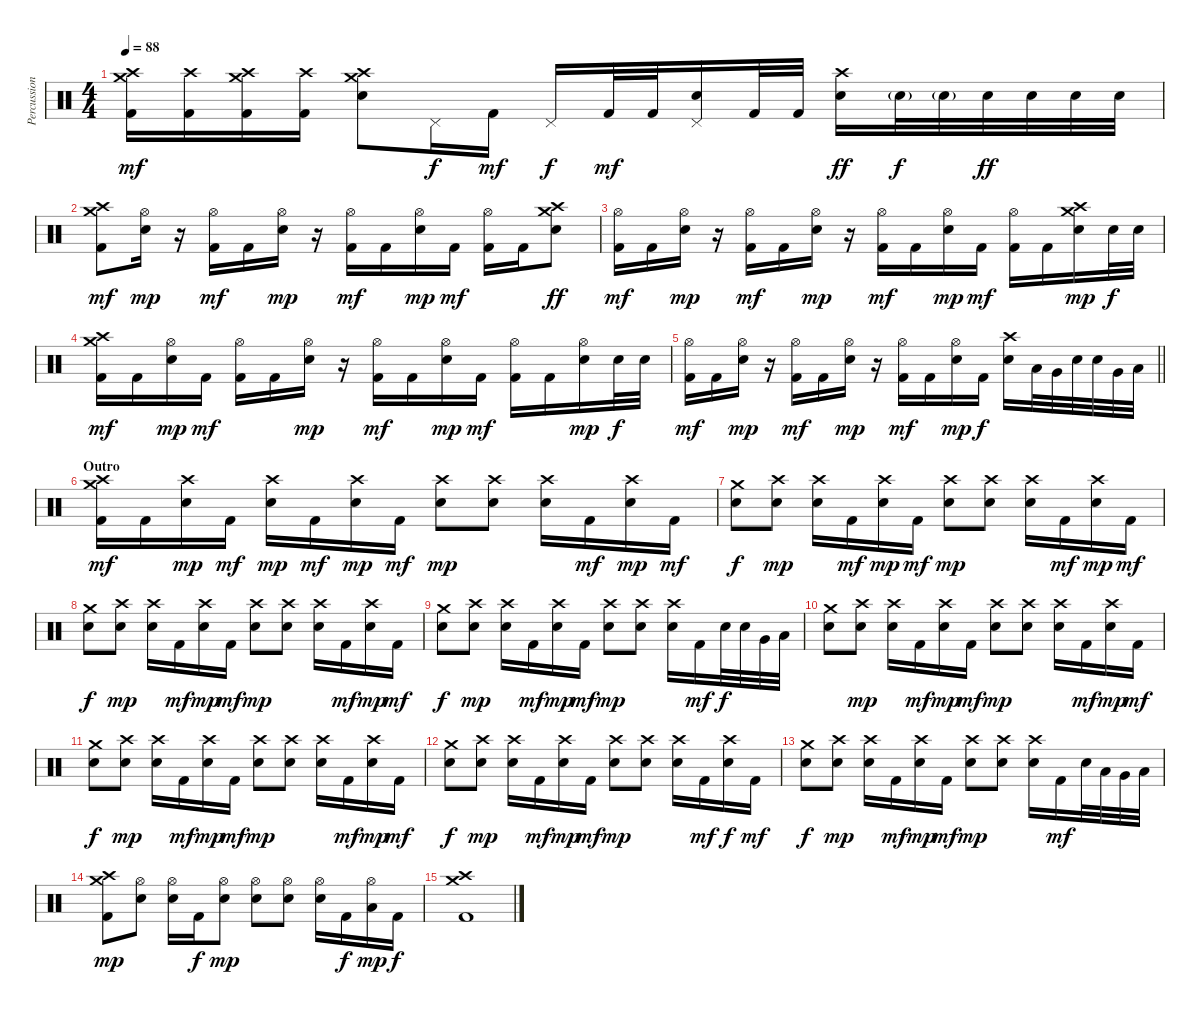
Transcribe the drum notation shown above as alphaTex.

\track ("Percussion" "Percussion") {instrument percussion}
\staff {score}
\articulation defaults
\ts (4 4)
\tempo 88
\clef neutral
\ks c
("Crash high (hit)" "Crash medium (hit)" "Kick (hit) 2").16{dy mf} ("Crash high (hit)" "Kick (hit) 2").16 ("Crash high (hit)" "Crash medium (hit)" "Kick (hit) 2").16 ("Crash high (hit)" "Kick (hit) 2").16 ("Crash high (hit)" "Crash medium (hit)" "Electric Snare (hit)").8 "Pedal Hi-Hat (hit)".16{dy f} "Kick (hit) 2".16{dy mf} "Pedal Hi-Hat (hit)".16{dy f} "Kick (hit) 2".32{dy mf} "Kick (hit) 2".32 ("Pedal Hi-Hat (hit)" "Electric Snare (hit)").16 "Kick (hit) 2".32 "Kick (hit) 2".32 ("Crash high (hit)" "Electric Snare (hit)").16{dy ff} "Electric Snare (hit)"{g}.32{dy f} "Electric Snare (hit)"{g}.32 "Electric Snare (hit)".32{dy ff} "Electric Snare (hit)".32 "Electric Snare (hit)".32 "Electric Snare (hit)".32 |
("Crash high (hit)" "Crash medium (hit)" "Kick (hit) 2").8{dy mf} ("Hi-Hat (open)" "Electric Snare (hit)").16{dy mp} r.16 ("Hi-Hat (open)" "Kick (hit) 2").16{dy mf} "Kick (hit) 2".16 ("Hi-Hat (open)" "Electric Snare (hit)").16{dy mp} r.16 ("Hi-Hat (open)" "Kick (hit) 2").16{dy mf} "Kick (hit) 2".16 ("Hi-Hat (open)" "Electric Snare (hit)").16{dy mp} "Kick (hit) 2".16{dy mf} ("Hi-Hat (open)" "Kick (hit) 2").16 "Kick (hit) 2".16 ("Crash high (hit)" "Crash medium (hit)" "Electric Snare (hit)").8{dy ff} |
("Hi-Hat (open)" "Kick (hit) 2").16{dy mf} "Kick (hit) 2".16 ("Hi-Hat (open)" "Electric Snare (hit)").16{dy mp} r.16 ("Hi-Hat (open)" "Kick (hit) 2").16{dy mf} "Kick (hit) 2".16 ("Hi-Hat (open)" "Electric Snare (hit)").16{dy mp} r.16 ("Hi-Hat (open)" "Kick (hit) 2").16{dy mf} "Kick (hit) 2".16 ("Hi-Hat (open)" "Electric Snare (hit)").16{dy mp} "Kick (hit) 2".16{dy mf} ("Hi-Hat (open)" "Kick (hit) 2").16 "Kick (hit) 2".16 ("Crash high (hit)" "Crash medium (hit)" "Electric Snare (hit)").16{dy mp} "Electric Snare (hit)".32{dy f} "Electric Snare (hit)".32 |
("Crash high (hit)" "Crash medium (hit)" "Kick (hit) 2").16{dy mf} "Kick (hit) 2".16 ("Hi-Hat (open)" "Electric Snare (hit)").16{dy mp} "Kick (hit) 2".16{dy mf} ("Hi-Hat (open)" "Kick (hit) 2").16 "Kick (hit) 2".16 ("Hi-Hat (open)" "Electric Snare (hit)").16{dy mp} r.16 ("Hi-Hat (open)" "Kick (hit) 2").16{dy mf} "Kick (hit) 2".16 ("Hi-Hat (open)" "Electric Snare (hit)").16{dy mp} "Kick (hit) 2".16{dy mf} ("Hi-Hat (open)" "Kick (hit) 2").16 "Kick (hit) 2".16 ("Hi-Hat (open)" "Electric Snare (hit)").16{dy mp} "Electric Snare (hit)".32{dy f} "Electric Snare (hit)".32 |
\barLineRight lightlight
("Hi-Hat (open)" "Kick (hit) 2").16{dy mf} "Kick (hit) 2".16 ("Hi-Hat (open)" "Electric Snare (hit)").16{dy mp} r.16 ("Hi-Hat (open)" "Kick (hit) 2").16{dy mf} "Kick (hit) 2".16 ("Hi-Hat (open)" "Electric Snare (hit)").16{dy mp} r.16 ("Hi-Hat (open)" "Kick (hit) 2").16{dy mf} "Kick (hit) 2".16 ("Hi-Hat (open)" "Electric Snare (hit)").16{dy mp} "Kick (hit) 2".16{dy f} ("Crash high (hit)" "Electric Snare (hit)").16 "Low Tom (hit)".32 "Very Low Tom (hit)".32 "Electric Snare (hit)".32 "Electric Snare (hit)".32 "Very Low Tom (hit)".32 "Low Floor Tom (hit)".32 |
\section ("" "Outro")
("Crash high (hit)" "Crash medium (hit)" "Kick (hit) 2").16{dy mf} "Kick (hit) 2".16 ("Crash high (hit)" "Electric Snare (hit)").16{dy mp} "Kick (hit) 2".16{dy mf} ("Crash high (hit)" "Electric Snare (hit)").16{dy mp} "Kick (hit) 2".16{dy mf} ("Crash high (hit)" "Electric Snare (hit)").16{dy mp} "Kick (hit) 2".16{dy mf} ("Crash high (hit)" "Electric Snare (hit)").8{dy mp} ("Crash high (hit)" "Electric Snare (hit)").8 ("Crash high (hit)" "Electric Snare (hit)").16 "Kick (hit) 2".16{dy mf} ("Crash high (hit)" "Electric Snare (hit)").16{dy mp} "Kick (hit) 2".16{dy mf} |
("Crash medium (hit)" "Electric Snare (hit)").8{dy f} ("Crash high (hit)" "Electric Snare (hit)").8{dy mp} ("Crash high (hit)" "Electric Snare (hit)").16 "Kick (hit) 2".16{dy mf} ("Crash high (hit)" "Electric Snare (hit)").16{dy mp} "Kick (hit) 2".16{dy mf} ("Crash high (hit)" "Electric Snare (hit)").8{dy mp} ("Crash high (hit)" "Electric Snare (hit)").8 ("Crash high (hit)" "Electric Snare (hit)").16 "Kick (hit) 2".16{dy mf} ("Crash high (hit)" "Electric Snare (hit)").16{dy mp} "Kick (hit) 2".16{dy mf} |
("Crash medium (hit)" "Electric Snare (hit)").8{dy f} ("Crash high (hit)" "Electric Snare (hit)").8{dy mp} ("Crash high (hit)" "Electric Snare (hit)").16 "Kick (hit) 2".16{dy mf} ("Crash high (hit)" "Electric Snare (hit)").16{dy mp} "Kick (hit) 2".16{dy mf} ("Crash high (hit)" "Electric Snare (hit)").8{dy mp} ("Crash high (hit)" "Electric Snare (hit)").8 ("Crash high (hit)" "Electric Snare (hit)").16 "Kick (hit) 2".16{dy mf} ("Crash high (hit)" "Electric Snare (hit)").16{dy mp} "Kick (hit) 2".16{dy mf} |
("Crash medium (hit)" "Electric Snare (hit)").8{dy f} ("Crash high (hit)" "Electric Snare (hit)").8{dy mp} ("Crash high (hit)" "Electric Snare (hit)").16 "Kick (hit) 2".16{dy mf} ("Crash high (hit)" "Electric Snare (hit)").16{dy mp} "Kick (hit) 2".16{dy mf} ("Crash high (hit)" "Electric Snare (hit)").8{dy mp} ("Crash high (hit)" "Electric Snare (hit)").8 ("Crash high (hit)" "Electric Snare (hit)").16 "Kick (hit) 2".16{dy mf} "Electric Snare (hit)".32{dy f} "Electric Snare (hit)".32 "Very Low Tom (hit)".32 "Low Floor Tom (hit)".32 |
("Crash medium (hit)" "Electric Snare (hit)").8 ("Crash high (hit)" "Electric Snare (hit)").8{dy mp} ("Crash high (hit)" "Electric Snare (hit)").16 "Kick (hit) 2".16{dy mf} ("Crash high (hit)" "Electric Snare (hit)").16{dy mp} "Kick (hit) 2".16{dy mf} ("Crash high (hit)" "Electric Snare (hit)").8{dy mp} ("Crash high (hit)" "Electric Snare (hit)").8 ("Crash high (hit)" "Electric Snare (hit)").16 "Kick (hit) 2".16{dy mf} ("Crash high (hit)" "Electric Snare (hit)").16{dy mp} "Kick (hit) 2".16{dy mf} |
("Crash medium (hit)" "Electric Snare (hit)").8{dy f} ("Crash high (hit)" "Electric Snare (hit)").8{dy mp} ("Crash high (hit)" "Electric Snare (hit)").16 "Kick (hit) 2".16{dy mf} ("Crash high (hit)" "Electric Snare (hit)").16{dy mp} "Kick (hit) 2".16{dy mf} ("Crash high (hit)" "Electric Snare (hit)").8{dy mp} ("Crash high (hit)" "Electric Snare (hit)").8 ("Crash high (hit)" "Electric Snare (hit)").16 "Kick (hit) 2".16{dy mf} ("Crash high (hit)" "Electric Snare (hit)").16{dy mp} "Kick (hit) 2".16{dy mf} |
("Crash medium (hit)" "Electric Snare (hit)").8{dy f} ("Crash high (hit)" "Electric Snare (hit)").8{dy mp} ("Crash high (hit)" "Electric Snare (hit)").16 "Kick (hit) 2".16{dy mf} ("Crash high (hit)" "Electric Snare (hit)").16{dy mp} "Kick (hit) 2".16{dy mf} ("Crash high (hit)" "Electric Snare (hit)").8{dy mp} ("Crash high (hit)" "Electric Snare (hit)").8 ("Crash high (hit)" "Electric Snare (hit)").16 "Kick (hit) 2".16{dy mf} ("Crash high (hit)" "Electric Snare (hit)").16{dy f} "Kick (hit) 2".16{dy mf} |
("Crash medium (hit)" "Electric Snare (hit)").8{dy f} ("Crash high (hit)" "Electric Snare (hit)").8{dy mp} ("Crash high (hit)" "Electric Snare (hit)").16 "Kick (hit) 2".16{dy mf} ("Crash high (hit)" "Electric Snare (hit)").16{dy mp} "Kick (hit) 2".16{dy mf} ("Crash high (hit)" "Electric Snare (hit)").8{dy mp} ("Crash high (hit)" "Electric Snare (hit)").8 ("Crash high (hit)" "Electric Snare (hit)").16 "Kick (hit) 2".16{dy mf} "Electric Snare (hit)".32 "Low Tom (hit)".32 "Very Low Tom (hit)".32 "Low Floor Tom (hit)".32 |
("Crash high (hit)" "Crash medium (hit)" "Kick (hit) 2").8{dy mp} ("Hi-Hat (open)" "Electric Snare (hit)").8 ("Hi-Hat (open)" "Electric Snare (hit)").16 "Kick (hit) 2".16{dy f} ("Hi-Hat (open)" "Electric Snare (hit)").8{dy mp} ("Hi-Hat (open)" "Electric Snare (hit)").8 ("Hi-Hat (open)" "Electric Snare (hit)").8 ("Hi-Hat (open)" "Electric Snare (hit)").16 "Kick (hit) 2".16{dy f} ("Hi-Hat (open)" "Low Tom (hit)").16{dy mp} "Kick (hit) 2".16{dy f} |
("Crash high (hit)" "Crash medium (hit)" "Kick (hit) 2").1
